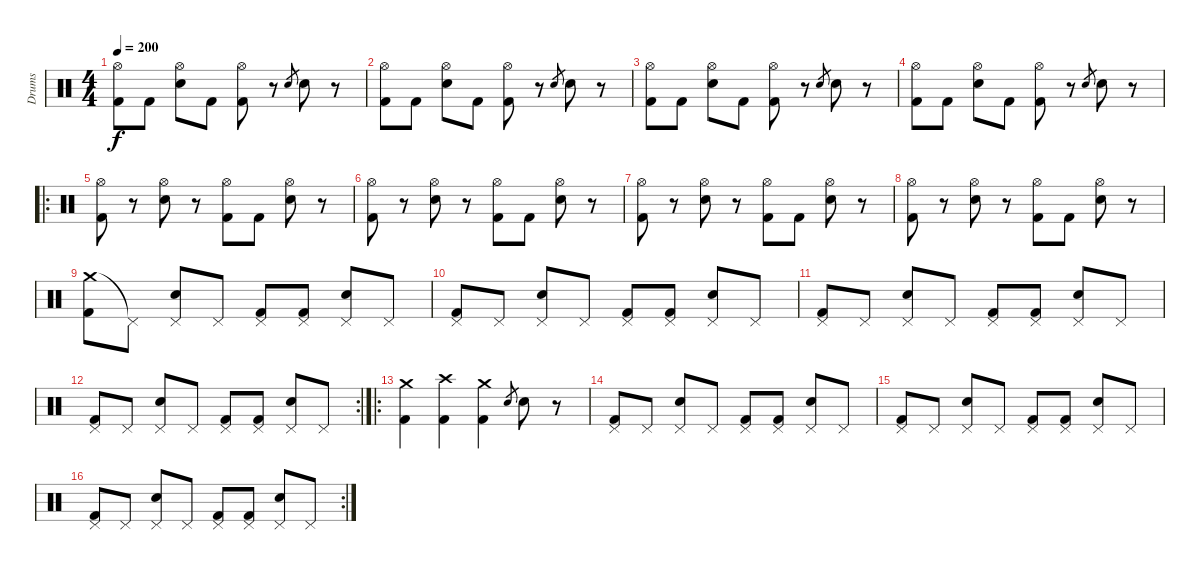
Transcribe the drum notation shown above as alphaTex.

\track ("Drums" "Drums") {instrument percussion}
\staff {score}
\articulation defaults
\ts (4 4)
\tempo 200
\clef neutral
\ks c
("Hi-Hat (open)" "Kick (hit) 2").8{dy f} "Kick (hit) 2".8 ("Hi-Hat (open)" "Snare (hit) 2").8 "Kick (hit) 2".8 ("Hi-Hat (open)" "Kick (hit) 2").8 r.8 "Snare (hit) 2".8{gr} "Snare (hit) 2".8 r.8 |
("Hi-Hat (open)" "Kick (hit) 2").8 "Kick (hit) 2".8 ("Hi-Hat (open)" "Snare (hit) 2").8 "Kick (hit) 2".8 ("Hi-Hat (open)" "Kick (hit) 2").8 r.8 "Snare (hit) 2".8{gr} "Snare (hit) 2".8 r.8 |
("Hi-Hat (open)" "Kick (hit) 2").8 "Kick (hit) 2".8 ("Hi-Hat (open)" "Snare (hit) 2").8 "Kick (hit) 2".8 ("Hi-Hat (open)" "Kick (hit) 2").8 r.8 "Snare (hit) 2".8{gr} "Snare (hit) 2".8 r.8 |
("Hi-Hat (open)" "Kick (hit) 2").8 "Kick (hit) 2".8 ("Hi-Hat (open)" "Snare (hit) 2").8 "Kick (hit) 2".8 ("Hi-Hat (open)" "Kick (hit) 2").8 r.8 "Snare (hit) 2".8{gr} "Snare (hit) 2".8 r.8 |
\ro
("Hi-Hat (open)" "Kick (hit) 2").8 r.8 ("Hi-Hat (open)" "Snare (hit) 2").8 r.8 ("Hi-Hat (open)" "Kick (hit) 2").8 "Kick (hit) 2".8 ("Hi-Hat (open)" "Snare (hit) 2").8 r.8 |
("Hi-Hat (open)" "Kick (hit) 2").8 r.8 ("Hi-Hat (open)" "Snare (hit) 2").8 r.8 ("Hi-Hat (open)" "Kick (hit) 2").8 "Kick (hit) 2".8 ("Hi-Hat (open)" "Snare (hit) 2").8 r.8 |
("Hi-Hat (open)" "Kick (hit) 2").8 r.8 ("Hi-Hat (open)" "Snare (hit) 2").8 r.8 ("Hi-Hat (open)" "Kick (hit) 2").8 "Kick (hit) 2".8 ("Hi-Hat (open)" "Snare (hit) 2").8 r.8 |
("Hi-Hat (open)" "Kick (hit) 2").8 r.8 ("Hi-Hat (open)" "Snare (hit) 2").8 r.8 ("Hi-Hat (open)" "Kick (hit) 2").8 "Kick (hit) 2".8 ("Hi-Hat (open)" "Snare (hit) 2").8 r.8 |
("Crash medium (hit)" "Kick (hit) 2").8 "Pedal Hi-Hat (hit)"{t}.8 ("Pedal Hi-Hat (hit)" "Snare (hit) 2").8 "Pedal Hi-Hat (hit)".8 ("Pedal Hi-Hat (hit)" "Kick (hit) 2").8 ("Pedal Hi-Hat (hit)" "Kick (hit) 2").8 ("Pedal Hi-Hat (hit)" "Snare (hit) 2").8 "Pedal Hi-Hat (hit)".8 |
("Pedal Hi-Hat (hit)" "Kick (hit) 2").8 "Pedal Hi-Hat (hit)".8 ("Pedal Hi-Hat (hit)" "Snare (hit) 2").8 "Pedal Hi-Hat (hit)".8 ("Pedal Hi-Hat (hit)" "Kick (hit) 2").8 ("Pedal Hi-Hat (hit)" "Kick (hit) 2").8 ("Pedal Hi-Hat (hit)" "Snare (hit) 2").8 "Pedal Hi-Hat (hit)".8 |
("Pedal Hi-Hat (hit)" "Kick (hit) 2").8 "Pedal Hi-Hat (hit)".8 ("Pedal Hi-Hat (hit)" "Snare (hit) 2").8 "Pedal Hi-Hat (hit)".8 ("Pedal Hi-Hat (hit)" "Kick (hit) 2").8 ("Pedal Hi-Hat (hit)" "Kick (hit) 2").8 ("Pedal Hi-Hat (hit)" "Snare (hit) 2").8 "Pedal Hi-Hat (hit)".8 |
\rc 2
("Pedal Hi-Hat (hit)" "Kick (hit) 2").8 "Pedal Hi-Hat (hit)".8 ("Pedal Hi-Hat (hit)" "Snare (hit) 2").8 "Pedal Hi-Hat (hit)".8 ("Pedal Hi-Hat (hit)" "Kick (hit) 2").8 ("Pedal Hi-Hat (hit)" "Kick (hit) 2").8 ("Pedal Hi-Hat (hit)" "Snare (hit) 2").8 "Pedal Hi-Hat (hit)".8 |
\ro
("Crash medium (hit)" "Kick (hit) 2").4 ("Crash high (hit)" "Kick (hit) 2").4 ("Crash medium (hit)" "Kick (hit) 2").4 "Snare (hit) 2".8{gr} "Snare (hit) 2".8 r.8 |
("Pedal Hi-Hat (hit)" "Kick (hit) 2").8 "Pedal Hi-Hat (hit)".8 ("Pedal Hi-Hat (hit)" "Snare (hit) 2").8 "Pedal Hi-Hat (hit)".8 ("Pedal Hi-Hat (hit)" "Kick (hit) 2").8 ("Pedal Hi-Hat (hit)" "Kick (hit) 2").8 ("Pedal Hi-Hat (hit)" "Snare (hit) 2").8 "Pedal Hi-Hat (hit)".8 |
("Pedal Hi-Hat (hit)" "Kick (hit) 2").8 "Pedal Hi-Hat (hit)".8 ("Pedal Hi-Hat (hit)" "Snare (hit) 2").8 "Pedal Hi-Hat (hit)".8 ("Pedal Hi-Hat (hit)" "Kick (hit) 2").8 ("Pedal Hi-Hat (hit)" "Kick (hit) 2").8 ("Pedal Hi-Hat (hit)" "Snare (hit) 2").8 "Pedal Hi-Hat (hit)".8 |
\rc 2
("Pedal Hi-Hat (hit)" "Kick (hit) 2").8 "Pedal Hi-Hat (hit)".8 ("Pedal Hi-Hat (hit)" "Snare (hit) 2").8 "Pedal Hi-Hat (hit)".8 ("Pedal Hi-Hat (hit)" "Kick (hit) 2").8 ("Pedal Hi-Hat (hit)" "Kick (hit) 2").8 ("Pedal Hi-Hat (hit)" "Snare (hit) 2").8 "Pedal Hi-Hat (hit)".8
